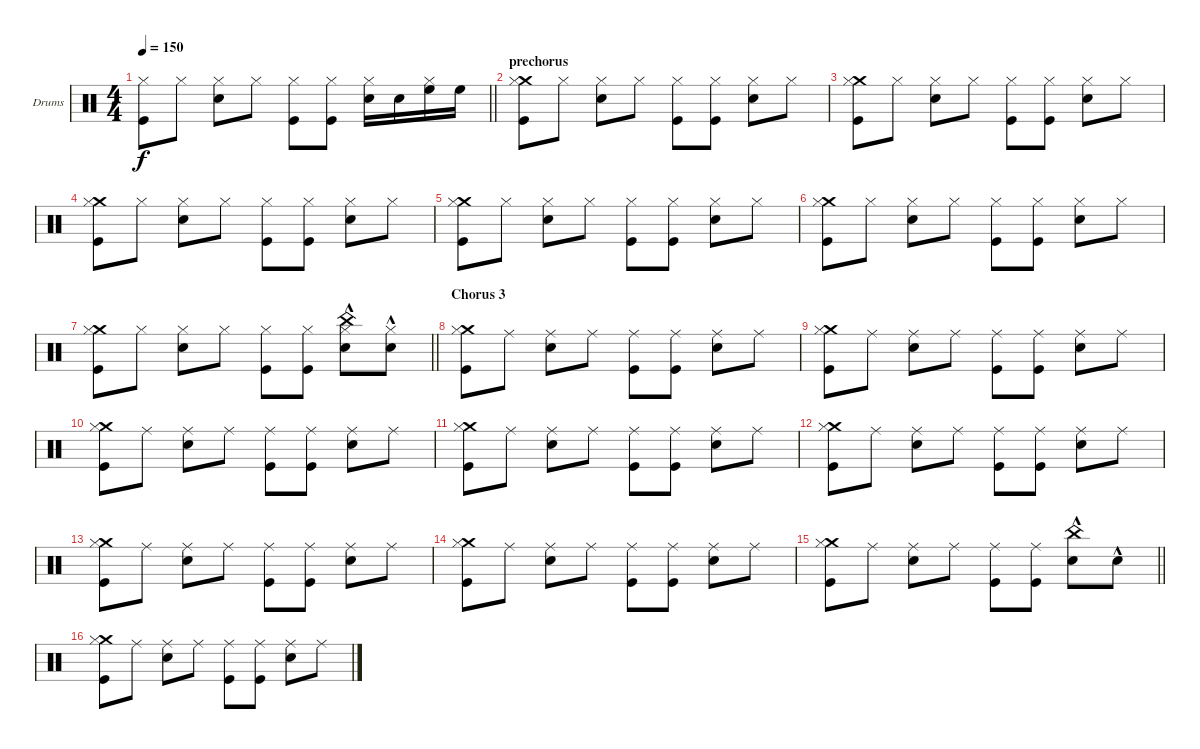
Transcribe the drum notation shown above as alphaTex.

\bracketExtendMode groupsimilarinstruments
\firstSystemTrackNameOrientation horizontal
\otherSystemsTrackNameOrientation horizontal
\track ("Drumkit" "Drums") {instrument percussion}
\staff {score}
\articulation defaults
\ts (4 4)
\tempo 150
\clef neutral
\barLineRight lightlight
\ks c
("Kick (hit)" "Hi-Hat (closed)").8{dy f} "Hi-Hat (closed)".8 ("Snare (hit) 2" "Hi-Hat (closed)").8 "Hi-Hat (closed)".8 ("Kick (hit)" "Hi-Hat (closed)").8 ("Kick (hit)" "Hi-Hat (closed)").8 ("Snare (hit) 2" "Hi-Hat (closed)").16 "Snare (hit) 2".16 ("High Floor Tom (hit)" "Hi-Hat (closed)").16 "High Floor Tom (hit)".16 |
\section ("" "prechorus")
("Crash medium (hit)" "Kick (hit)" "Hi-Hat (closed)").8 "Hi-Hat (closed)".8 ("Snare (hit) 2" "Hi-Hat (closed)").8 "Hi-Hat (closed)".8 ("Kick (hit)" "Hi-Hat (closed)").8 ("Kick (hit)" "Hi-Hat (closed)").8 ("Snare (hit) 2" "Hi-Hat (closed)").8 "Hi-Hat (closed)".8 |
("Crash medium (hit)" "Kick (hit)" "Hi-Hat (closed)").8 "Hi-Hat (closed)".8 ("Snare (hit) 2" "Hi-Hat (closed)").8 "Hi-Hat (closed)".8 ("Kick (hit)" "Hi-Hat (closed)").8 ("Kick (hit)" "Hi-Hat (closed)").8 ("Snare (hit) 2" "Hi-Hat (closed)").8 "Hi-Hat (closed)".8 |
("Crash medium (hit)" "Kick (hit)" "Hi-Hat (closed)").8 "Hi-Hat (closed)".8 ("Snare (hit) 2" "Hi-Hat (closed)").8 "Hi-Hat (closed)".8 ("Kick (hit)" "Hi-Hat (closed)").8 ("Kick (hit)" "Hi-Hat (closed)").8 ("Snare (hit) 2" "Hi-Hat (closed)").8 "Hi-Hat (closed)".8 |
("Crash medium (hit)" "Kick (hit)" "Hi-Hat (closed)").8 "Hi-Hat (closed)".8 ("Snare (hit) 2" "Hi-Hat (closed)").8 "Hi-Hat (closed)".8 ("Kick (hit)" "Hi-Hat (closed)").8 ("Kick (hit)" "Hi-Hat (closed)").8 ("Snare (hit) 2" "Hi-Hat (closed)").8 "Hi-Hat (closed)".8 |
("Crash medium (hit)" "Kick (hit)" "Hi-Hat (closed)").8 "Hi-Hat (closed)".8 ("Snare (hit) 2" "Hi-Hat (closed)").8 "Hi-Hat (closed)".8 ("Kick (hit)" "Hi-Hat (closed)").8 ("Kick (hit)" "Hi-Hat (closed)").8 ("Snare (hit) 2" "Hi-Hat (closed)").8 "Hi-Hat (closed)".8 |
\barLineRight lightlight
("Crash medium (hit)" "Kick (hit)" "Hi-Hat (closed)").8 "Hi-Hat (closed)".8 ("Snare (hit) 2" "Hi-Hat (closed)").8 "Hi-Hat (closed)".8 ("Kick (hit)" "Hi-Hat (closed)").8 ("Kick (hit)" "Hi-Hat (closed)").8 ("China (hit)" "Snare (hit) 2"{hac} "Hi-Hat (closed)").8 ("Snare (hit) 2"{hac} "Hi-Hat (closed)").8 |
\section ("" "Chorus 3")
("Crash medium (hit)" "Kick (hit)" "Hi-Hat (closed)").8 "Ride (middle)".8 ("Ride (middle)" "Snare (hit) 2").8 "Ride (middle)".8 ("Ride (middle)" "Kick (hit)").8 ("Ride (middle)" "Kick (hit)").8 ("Ride (middle)" "Snare (hit) 2").8 "Ride (middle)".8 |
("Crash medium (hit)" "Kick (hit)" "Hi-Hat (closed)").8 "Ride (middle)".8 ("Ride (middle)" "Snare (hit) 2").8 "Ride (middle)".8 ("Ride (middle)" "Kick (hit)").8 ("Ride (middle)" "Kick (hit)").8 ("Ride (middle)" "Snare (hit) 2").8 "Ride (middle)".8 |
("Crash medium (hit)" "Kick (hit)" "Hi-Hat (closed)").8 "Ride (middle)".8 ("Ride (middle)" "Snare (hit) 2").8 "Ride (middle)".8 ("Ride (middle)" "Kick (hit)").8 ("Ride (middle)" "Kick (hit)").8 ("Ride (middle)" "Snare (hit) 2").8 "Ride (middle)".8 |
("Crash medium (hit)" "Kick (hit)" "Hi-Hat (closed)").8 "Ride (middle)".8 ("Ride (middle)" "Snare (hit) 2").8 "Ride (middle)".8 ("Ride (middle)" "Kick (hit)").8 ("Ride (middle)" "Kick (hit)").8 ("Ride (middle)" "Snare (hit) 2").8 "Ride (middle)".8 |
("Crash medium (hit)" "Kick (hit)" "Hi-Hat (closed)").8 "Ride (middle)".8 ("Ride (middle)" "Snare (hit) 2").8 "Ride (middle)".8 ("Ride (middle)" "Kick (hit)").8 ("Ride (middle)" "Kick (hit)").8 ("Ride (middle)" "Snare (hit) 2").8 "Ride (middle)".8 |
("Crash medium (hit)" "Kick (hit)" "Hi-Hat (closed)").8 "Ride (middle)".8 ("Ride (middle)" "Snare (hit) 2").8 "Ride (middle)".8 ("Ride (middle)" "Kick (hit)").8 ("Ride (middle)" "Kick (hit)").8 ("Ride (middle)" "Snare (hit) 2").8 "Ride (middle)".8 |
("Crash medium (hit)" "Kick (hit)" "Hi-Hat (closed)").8 "Ride (middle)".8 ("Ride (middle)" "Snare (hit) 2").8 "Ride (middle)".8 ("Ride (middle)" "Kick (hit)").8 ("Ride (middle)" "Kick (hit)").8 ("Ride (middle)" "Snare (hit) 2").8 "Ride (middle)".8 |
\barLineRight lightlight
("Crash medium (hit)" "Kick (hit)" "Hi-Hat (closed)").8 "Ride (middle)".8 ("Ride (middle)" "Snare (hit) 2").8 "Ride (middle)".8 ("Ride (middle)" "Kick (hit)").8 ("Ride (middle)" "Kick (hit)").8 ("Snare (hit) 2"{hac} "China (hit)").8 "Snare (hit) 2"{hac}.8 |
("Crash medium (hit)" "Kick (hit)" "Hi-Hat (closed)").8 "Ride (middle)".8 ("Ride (middle)" "Snare (hit) 2").8 "Ride (middle)".8 ("Ride (middle)" "Kick (hit)").8 ("Ride (middle)" "Kick (hit)").8 ("Ride (middle)" "Snare (hit) 2").8 "Ride (middle)".8
